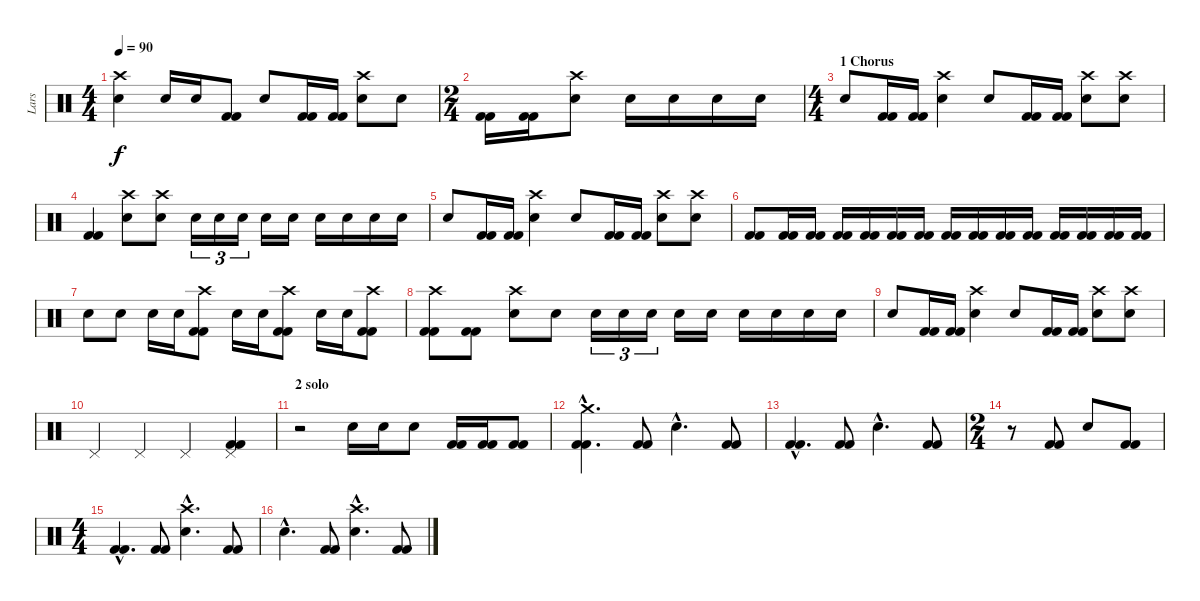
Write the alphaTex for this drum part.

\track ("Lars" "Lars") {instrument percussion}
\staff {score}
\articulation defaults
\ts (4 4)
\tempo 90
\clef neutral
\ks c
("Snare (hit) 2" "Crash high (hit)").4{dy f} "Snare (hit) 2".16 "Snare (hit) 2".16 ("Kick (hit) 2" "Kick (hit) 2").8 "Snare (hit) 2".8 ("Kick (hit) 2" "Kick (hit) 2").16 ("Kick (hit) 2" "Kick (hit) 2").16 ("Snare (hit) 2" "Crash high (hit)").8 "Snare (hit) 2".8 |
\ts (2 4)
("Kick (hit) 2" "Kick (hit) 2").16 ("Kick (hit) 2" "Kick (hit) 2").16 ("Snare (hit) 2" "Crash high (hit)").8 "Snare (hit) 2".16 "Snare (hit) 2".16 "Snare (hit) 2".16 "Snare (hit) 2".16 |
\ts (4 4)
\section ("" "1 Chorus")
"Snare (hit) 2".8 ("Kick (hit) 2" "Kick (hit) 2").16 ("Kick (hit) 2" "Kick (hit) 2").16 ("Snare (hit) 2" "Crash high (hit)").4 "Snare (hit) 2".8 ("Kick (hit) 2" "Kick (hit) 2").16 ("Kick (hit) 2" "Kick (hit) 2").16 ("Snare (hit) 2" "Crash high (hit)").8 ("Crash high (hit)" "Snare (hit) 2").8 |
("Kick (hit) 2" "Kick (hit) 2").4 ("Snare (hit) 2" "Crash high (hit)").8 ("Snare (hit) 2" "Crash high (hit)").8 "Snare (hit) 2".16{tu (3 2)} "Snare (hit) 2".16{tu (3 2)} "Snare (hit) 2".16{tu (3 2)} "Snare (hit) 2".16 "Snare (hit) 2".16 "Snare (hit) 2".16 "Snare (hit) 2".16 "Snare (hit) 2".16 "Snare (hit) 2".16 |
"Snare (hit) 2".8 ("Kick (hit) 2" "Kick (hit) 2").16 ("Kick (hit) 2" "Kick (hit) 2").16 ("Snare (hit) 2" "Crash high (hit)").4 "Snare (hit) 2".8 ("Kick (hit) 2" "Kick (hit) 2").16 ("Kick (hit) 2" "Kick (hit) 2").16 ("Snare (hit) 2" "Crash high (hit)").8 ("Crash high (hit)" "Snare (hit) 2").8 |
("Kick (hit) 2" "Kick (hit) 2").8 ("Kick (hit) 2" "Kick (hit) 2").16 ("Kick (hit) 2" "Kick (hit) 2").16 ("Kick (hit) 2" "Kick (hit) 2").16 ("Kick (hit) 2" "Kick (hit) 2").16 ("Kick (hit) 2" "Kick (hit) 2").16 ("Kick (hit) 2" "Kick (hit) 2").16 ("Kick (hit) 2" "Kick (hit) 2").16 ("Kick (hit) 2" "Kick (hit) 2").16 ("Kick (hit) 2" "Kick (hit) 2").16 ("Kick (hit) 2" "Kick (hit) 2").16 ("Kick (hit) 2" "Kick (hit) 2").16 ("Kick (hit) 2" "Kick (hit) 2").16 ("Kick (hit) 2" "Kick (hit) 2").16 ("Kick (hit) 2" "Kick (hit) 2").16 |
"Snare (hit) 2".8 "Snare (hit) 2".8 "Snare (hit) 2".16 "Snare (hit) 2".16 ("Crash high (hit)" "Kick (hit) 2" "Kick (hit) 2").8 "Snare (hit) 2".16 "Snare (hit) 2".16 ("Crash high (hit)" "Kick (hit) 2" "Kick (hit) 2").8 "Snare (hit) 2".16 "Snare (hit) 2".16 ("Crash high (hit)" "Kick (hit) 2" "Kick (hit) 2").8 |
("Crash high (hit)" "Kick (hit) 2" "Kick (hit) 2").8 ("Kick (hit) 2" "Kick (hit) 2").8 ("Snare (hit) 2" "Crash high (hit)").8 "Snare (hit) 2".8 "Snare (hit) 2".16{tu (3 2)} "Snare (hit) 2".16{tu (3 2)} "Snare (hit) 2".16{tu (3 2)} "Snare (hit) 2".16 "Snare (hit) 2".16 "Snare (hit) 2".16 "Snare (hit) 2".16 "Snare (hit) 2".16 "Snare (hit) 2".16 |
"Snare (hit) 2".8 ("Kick (hit) 2" "Kick (hit) 2").16 ("Kick (hit) 2" "Kick (hit) 2").16 ("Snare (hit) 2" "Crash high (hit)").4 "Snare (hit) 2".8 ("Kick (hit) 2" "Kick (hit) 2").16 ("Kick (hit) 2" "Kick (hit) 2").16 ("Snare (hit) 2" "Crash high (hit)").8 ("Crash high (hit)" "Snare (hit) 2").8 |
"Pedal Hi-Hat (hit)".4 "Pedal Hi-Hat (hit)".4 "Pedal Hi-Hat (hit)".4 ("Pedal Hi-Hat (hit)" "Kick (hit) 2" "Kick (hit) 2").4 |
\section ("" "2 solo")
r.2 "Snare (hit) 2".16 "Snare (hit) 2".16 "Snare (hit) 2".8 ("Kick (hit) 2" "Kick (hit) 2").16 ("Kick (hit) 2" "Kick (hit) 2").16 ("Kick (hit) 2" "Kick (hit) 2").8 |
("Crash medium (hit)"{hac} "Kick (hit) 2"{hac} "Kick (hit) 2"{hac}).4{d} ("Kick (hit) 2" "Kick (hit) 2").8 "Snare (hit) 2"{hac}.4{d} ("Kick (hit) 2" "Kick (hit) 2").8 |
("Kick (hit) 2"{hac} "Kick (hit) 2"{hac}).4{d} ("Kick (hit) 2" "Kick (hit) 2").8 "Snare (hit) 2"{hac}.4{d} ("Kick (hit) 2" "Kick (hit) 2").8 |
\ts (2 4)
r.8 ("Kick (hit) 2" "Kick (hit) 2").8 "Snare (hit) 2".8 ("Kick (hit) 2" "Kick (hit) 2").8 |
\ts (4 4)
("Kick (hit) 2"{hac} "Kick (hit) 2"{hac}).4{d} ("Kick (hit) 2" "Kick (hit) 2").8 ("Snare (hit) 2"{hac} "Crash high (hit)"{hac}).4{d} ("Kick (hit) 2" "Kick (hit) 2").8 |
"Snare (hit) 2"{hac}.4{d} ("Kick (hit) 2" "Kick (hit) 2").8 ("Snare (hit) 2"{hac} "Crash high (hit)"{hac}).4{d} ("Kick (hit) 2" "Kick (hit) 2").8
